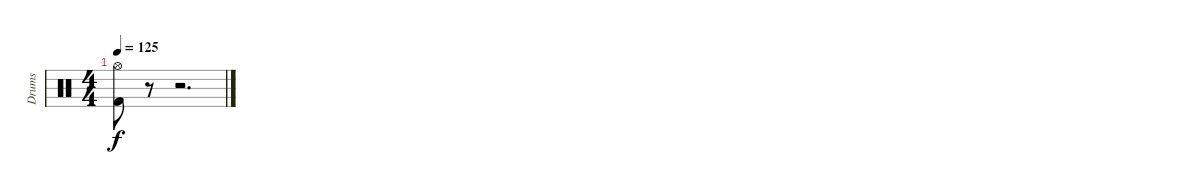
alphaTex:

\track ("Drums" "Drums") {instrument percussion}
\staff {score}
\articulation defaults
\ts (4 4)
\tempo 125
\clef neutral
\ks c
("Kick (hit) 2" "Hi-Hat (open)").8{dy f} r.8 r.2{d}
